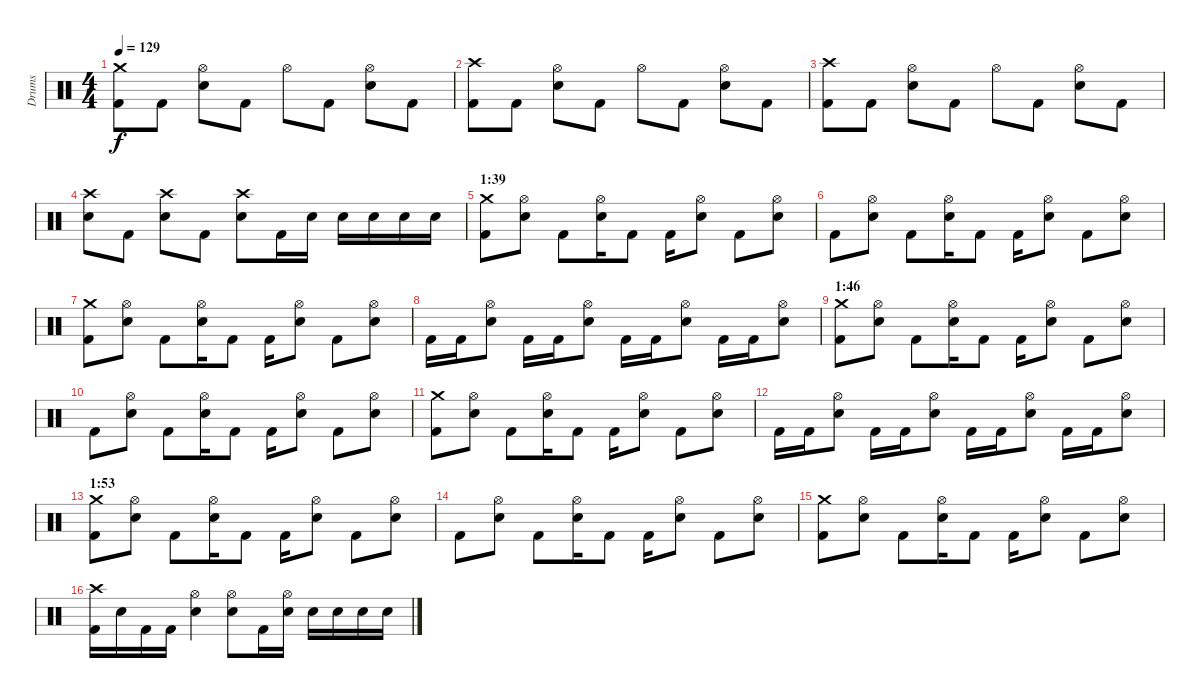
\track ("Drums" "Drums") {instrument percussion}
\staff {score}
\articulation defaults
\ts (4 4)
\tempo 129
\clef neutral
\ks c
("Crash medium (hit)" "Kick (hit) 2").8{dy f} "Kick (hit) 2".8 ("Hi-Hat (open)" "Snare (hit) 2").8 "Kick (hit) 2".8 "Hi-Hat (open)".8 "Kick (hit) 2".8 ("Hi-Hat (open)" "Snare (hit) 2").8 "Kick (hit) 2".8 |
("Crash high (hit)" "Kick (hit) 2").8 "Kick (hit) 2".8 ("Hi-Hat (open)" "Snare (hit) 2").8 "Kick (hit) 2".8 "Hi-Hat (open)".8 "Kick (hit) 2".8 ("Hi-Hat (open)" "Snare (hit) 2").8 "Kick (hit) 2".8 |
("Crash high (hit)" "Kick (hit) 2").8 "Kick (hit) 2".8 ("Hi-Hat (open)" "Snare (hit) 2").8 "Kick (hit) 2".8 "Hi-Hat (open)".8 "Kick (hit) 2".8 ("Hi-Hat (open)" "Snare (hit) 2").8 "Kick (hit) 2".8 |
("Crash high (hit)" "Snare (hit) 2").8 "Kick (hit) 2".8 ("Crash high (hit)" "Snare (hit) 2").8 "Kick (hit) 2".8 ("Crash high (hit)" "Snare (hit) 2").8 "Kick (hit) 2".16 "Snare (hit) 2".16 "Snare (hit) 2".16 "Snare (hit) 2".16 "Snare (hit) 2".16 "Snare (hit) 2".16 |
\section ("" "1:39")
("Crash medium (hit)" "Kick (hit) 2").8 ("Hi-Hat (open)" "Snare (hit) 2").8 "Kick (hit) 2".8 ("Hi-Hat (open)" "Snare (hit) 2").16 "Kick (hit) 2".8 "Kick (hit) 2".16 ("Hi-Hat (open)" "Snare (hit) 2").8 "Kick (hit) 2".8 ("Hi-Hat (open)" "Snare (hit) 2").8 |
"Kick (hit) 2".8 ("Hi-Hat (open)" "Snare (hit) 2").8 "Kick (hit) 2".8 ("Hi-Hat (open)" "Snare (hit) 2").16 "Kick (hit) 2".8 "Kick (hit) 2".16 ("Hi-Hat (open)" "Snare (hit) 2").8 "Kick (hit) 2".8 ("Hi-Hat (open)" "Snare (hit) 2").8 |
("Crash medium (hit)" "Kick (hit) 2").8 ("Hi-Hat (open)" "Snare (hit) 2").8 "Kick (hit) 2".8 ("Hi-Hat (open)" "Snare (hit) 2").16 "Kick (hit) 2".8 "Kick (hit) 2".16 ("Hi-Hat (open)" "Snare (hit) 2").8 "Kick (hit) 2".8 ("Hi-Hat (open)" "Snare (hit) 2").8 |
"Kick (hit) 2".16 "Kick (hit) 2".16 ("Hi-Hat (open)" "Snare (hit) 2").8 "Kick (hit) 2".16 "Kick (hit) 2".16 ("Hi-Hat (open)" "Snare (hit) 2").8 "Kick (hit) 2".16 "Kick (hit) 2".16 ("Hi-Hat (open)" "Snare (hit) 2").8 "Kick (hit) 2".16 "Kick (hit) 2".16 ("Hi-Hat (open)" "Snare (hit) 2").8 |
\section ("" "1:46")
("Crash medium (hit)" "Kick (hit) 2").8 ("Hi-Hat (open)" "Snare (hit) 2").8 "Kick (hit) 2".8 ("Hi-Hat (open)" "Snare (hit) 2").16 "Kick (hit) 2".8 "Kick (hit) 2".16 ("Hi-Hat (open)" "Snare (hit) 2").8 "Kick (hit) 2".8 ("Hi-Hat (open)" "Snare (hit) 2").8 |
"Kick (hit) 2".8 ("Hi-Hat (open)" "Snare (hit) 2").8 "Kick (hit) 2".8 ("Hi-Hat (open)" "Snare (hit) 2").16 "Kick (hit) 2".8 "Kick (hit) 2".16 ("Hi-Hat (open)" "Snare (hit) 2").8 "Kick (hit) 2".8 ("Hi-Hat (open)" "Snare (hit) 2").8 |
("Crash medium (hit)" "Kick (hit) 2").8 ("Hi-Hat (open)" "Snare (hit) 2").8 "Kick (hit) 2".8 ("Hi-Hat (open)" "Snare (hit) 2").16 "Kick (hit) 2".8 "Kick (hit) 2".16 ("Hi-Hat (open)" "Snare (hit) 2").8 "Kick (hit) 2".8 ("Hi-Hat (open)" "Snare (hit) 2").8 |
"Kick (hit) 2".16 "Kick (hit) 2".16 ("Hi-Hat (open)" "Snare (hit) 2").8 "Kick (hit) 2".16 "Kick (hit) 2".16 ("Hi-Hat (open)" "Snare (hit) 2").8 "Kick (hit) 2".16 "Kick (hit) 2".16 ("Hi-Hat (open)" "Snare (hit) 2").8 "Kick (hit) 2".16 "Kick (hit) 2".16 ("Hi-Hat (open)" "Snare (hit) 2").8 |
\section ("" "1:53")
("Crash medium (hit)" "Kick (hit) 2").8 ("Hi-Hat (open)" "Snare (hit) 2").8 "Kick (hit) 2".8 ("Hi-Hat (open)" "Snare (hit) 2").16 "Kick (hit) 2".8 "Kick (hit) 2".16 ("Hi-Hat (open)" "Snare (hit) 2").8 "Kick (hit) 2".8 ("Hi-Hat (open)" "Snare (hit) 2").8 |
"Kick (hit) 2".8 ("Hi-Hat (open)" "Snare (hit) 2").8 "Kick (hit) 2".8 ("Hi-Hat (open)" "Snare (hit) 2").16 "Kick (hit) 2".8 "Kick (hit) 2".16 ("Hi-Hat (open)" "Snare (hit) 2").8 "Kick (hit) 2".8 ("Hi-Hat (open)" "Snare (hit) 2").8 |
("Crash medium (hit)" "Kick (hit) 2").8 ("Hi-Hat (open)" "Snare (hit) 2").8 "Kick (hit) 2".8 ("Hi-Hat (open)" "Snare (hit) 2").16 "Kick (hit) 2".8 "Kick (hit) 2".16 ("Hi-Hat (open)" "Snare (hit) 2").8 "Kick (hit) 2".8 ("Hi-Hat (open)" "Snare (hit) 2").8 |
("Crash high (hit)" "Kick (hit) 2").16 "Snare (hit) 2".16 "Kick (hit) 2".16 "Kick (hit) 2".16 ("Hi-Hat (open)" "Snare (hit) 2").4 ("Hi-Hat (open)" "Snare (hit) 2").8 "Kick (hit) 2".16 ("Hi-Hat (open)" "Snare (hit) 2").16 "Snare (hit) 2".16 "Snare (hit) 2".16 "Snare (hit) 2".16 "Snare (hit) 2".16
